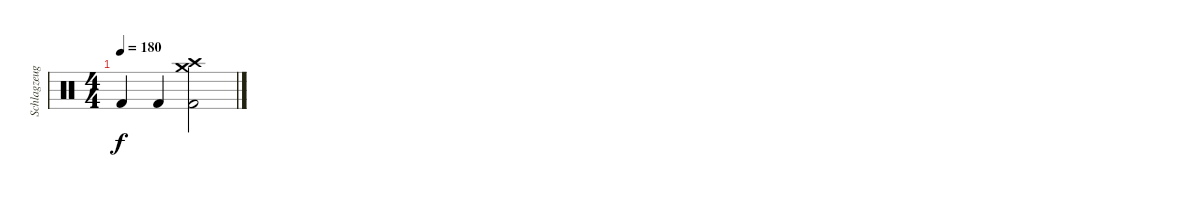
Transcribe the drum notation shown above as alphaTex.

\track ("Schlagzeug" "Schlagzeug") {instrument percussion}
\staff {score}
\articulation defaults
\ts (4 4)
\tempo 180
\clef neutral
\ks c "Kick (hit) 2".4{dy f} "Kick (hit) 2".4
("Crash medium (hit)" "Crash high (hit)" "Kick (hit) 2").2
